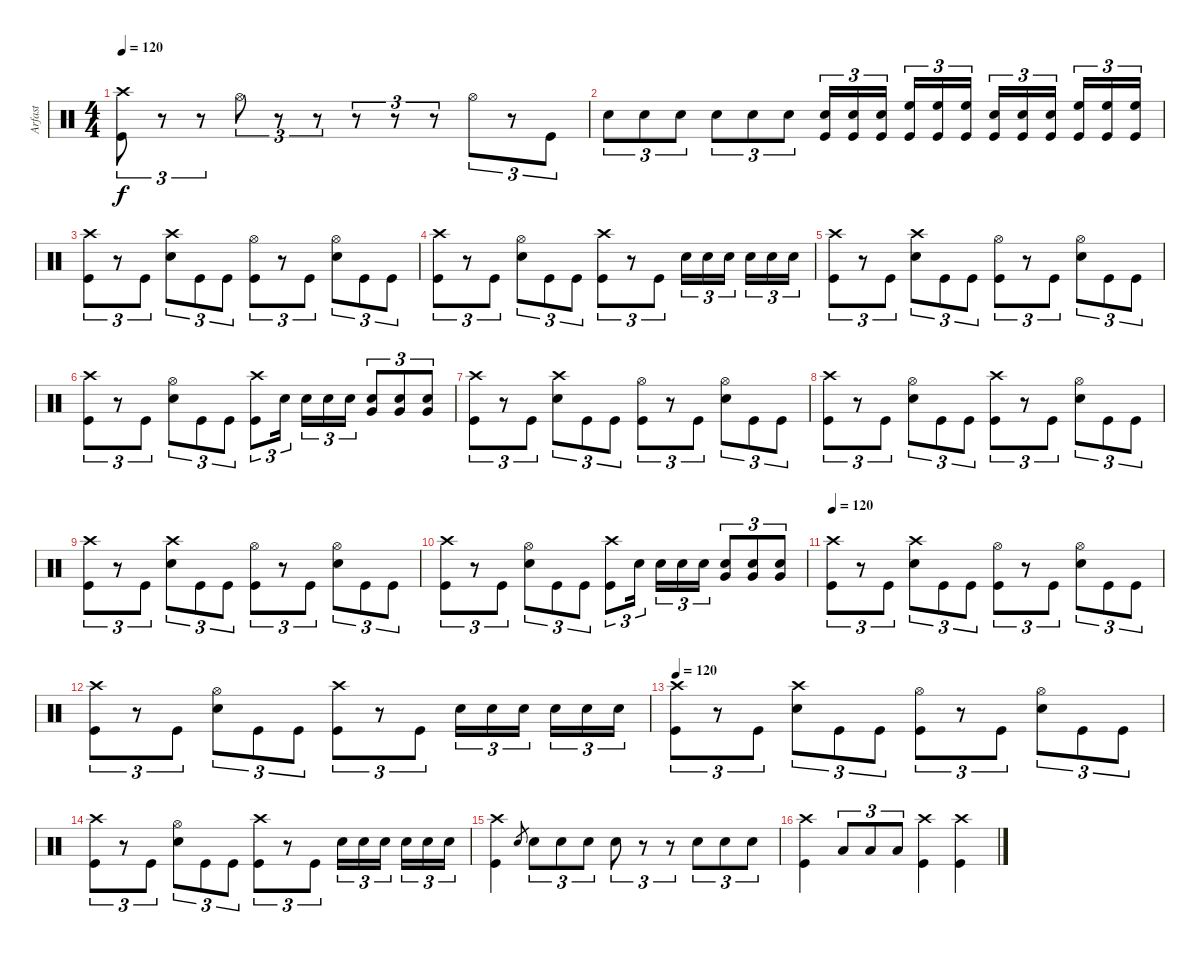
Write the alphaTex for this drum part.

\track ("Arfast" "Arfast") {instrument percussion}
\staff {score}
\articulation defaults
\ts (4 4)
\tempo 120
\clef neutral
\ks c
("Crash high (hit)" "Kick (hit)").8{tu (3 2) dy f} r.8{tu (3 2)} r.8{tu (3 2)} "Hi-Hat (open)".8{tu (3 2)} r.8{tu (3 2)} r.8{tu (3 2)} r.8{tu (3 2)} r.8{tu (3 2)} r.8{tu (3 2)} "Hi-Hat (open)".8{tu (3 2)} r.8{tu (3 2)} "Kick (hit)".8{tu (3 2)} |
"Snare (hit) 2".8{tu (3 2)} "Snare (hit) 2".8{tu (3 2)} "Snare (hit) 2".8{tu (3 2)} "Snare (hit) 2".8{tu (3 2)} "Snare (hit) 2".8{tu (3 2)} "Snare (hit) 2".8{tu (3 2)} ("Snare (hit) 2" "Kick (hit)").16{tu (3 2)} ("Snare (hit) 2" "Kick (hit)").16{tu (3 2)} ("Snare (hit) 2" "Kick (hit)").16{tu (3 2) beam splitsecondary} ("High Floor Tom (hit)" "Kick (hit)").16{tu (3 2)} ("High Floor Tom (hit)" "Kick (hit)").16{tu (3 2)} ("High Floor Tom (hit)" "Kick (hit)").16{tu (3 2)} ("Snare (hit) 2" "Kick (hit)").16{tu (3 2)} ("Snare (hit) 2" "Kick (hit)").16{tu (3 2)} ("Snare (hit) 2" "Kick (hit)").16{tu (3 2) beam splitsecondary} ("High Floor Tom (hit)" "Kick (hit)").16{tu (3 2)} ("High Floor Tom (hit)" "Kick (hit)").16{tu (3 2)} ("High Floor Tom (hit)" "Kick (hit)").16{tu (3 2)} |
("Crash high (hit)" "Kick (hit)").8{tu (3 2)} r.8{tu (3 2)} "Kick (hit)".8{tu (3 2)} ("Crash high (hit)" "Snare (hit) 2").8{tu (3 2)} "Kick (hit)".8{tu (3 2)} "Kick (hit)".8{tu (3 2)} ("Hi-Hat (open)" "Kick (hit)").8{tu (3 2)} r.8{tu (3 2)} "Kick (hit)".8{tu (3 2)} ("Hi-Hat (open)" "Snare (hit) 2").8{tu (3 2)} "Kick (hit)".8{tu (3 2)} "Kick (hit)".8{tu (3 2)} |
("Crash high (hit)" "Kick (hit)").8{tu (3 2)} r.8{tu (3 2)} "Kick (hit)".8{tu (3 2)} ("Hi-Hat (open)" "Snare (hit) 2").8{tu (3 2)} "Kick (hit)".8{tu (3 2)} "Kick (hit)".8{tu (3 2)} ("Crash high (hit)" "Kick (hit)").8{tu (3 2)} r.8{tu (3 2)} "Kick (hit)".8{tu (3 2)} "Snare (hit) 2".16{tu (3 2)} "Snare (hit) 2".16{tu (3 2)} "Snare (hit) 2".16{tu (3 2) beam splitsecondary} "Snare (hit) 2".16{tu (3 2)} "Snare (hit) 2".16{tu (3 2)} "Snare (hit) 2".16{tu (3 2)} |
("Crash high (hit)" "Kick (hit)").8{tu (3 2)} r.8{tu (3 2)} "Kick (hit)".8{tu (3 2)} ("Crash high (hit)" "Snare (hit) 2").8{tu (3 2)} "Kick (hit)".8{tu (3 2)} "Kick (hit)".8{tu (3 2)} ("Hi-Hat (open)" "Kick (hit)").8{tu (3 2)} r.8{tu (3 2)} "Kick (hit)".8{tu (3 2)} ("Hi-Hat (open)" "Snare (hit) 2").8{tu (3 2)} "Kick (hit)".8{tu (3 2)} "Kick (hit)".8{tu (3 2)} |
("Crash high (hit)" "Kick (hit)").8{tu (3 2)} r.8{tu (3 2)} "Kick (hit)".8{tu (3 2)} ("Hi-Hat (open)" "Snare (hit) 2").8{tu (3 2)} "Kick (hit)".8{tu (3 2)} "Kick (hit)".8{tu (3 2)} ("Crash high (hit)" "Kick (hit)").8{tu (3 2)} "Snare (hit) 2".16{tu (3 2) beam splitsecondary} "Snare (hit) 2".16{tu (3 2)} "Snare (hit) 2".16{tu (3 2)} "Snare (hit) 2".16{tu (3 2)} ("Snare (hit) 2" "Very Low Tom (hit)").8{tu (3 2)} ("Snare (hit) 2" "Very Low Tom (hit)").8{tu (3 2)} ("Snare (hit) 2" "Very Low Tom (hit)").8{tu (3 2)} |
("Crash high (hit)" "Kick (hit)").8{tu (3 2)} r.8{tu (3 2)} "Kick (hit)".8{tu (3 2)} ("Crash high (hit)" "Snare (hit) 2").8{tu (3 2)} "Kick (hit)".8{tu (3 2)} "Kick (hit)".8{tu (3 2)} ("Hi-Hat (open)" "Kick (hit)").8{tu (3 2)} r.8{tu (3 2)} "Kick (hit)".8{tu (3 2)} ("Hi-Hat (open)" "Snare (hit) 2").8{tu (3 2)} "Kick (hit)".8{tu (3 2)} "Kick (hit)".8{tu (3 2)} |
("Crash high (hit)" "Kick (hit)").8{tu (3 2)} r.8{tu (3 2)} "Kick (hit)".8{tu (3 2)} ("Hi-Hat (open)" "Snare (hit) 2").8{tu (3 2)} "Kick (hit)".8{tu (3 2)} "Kick (hit)".8{tu (3 2)} ("Crash high (hit)" "Kick (hit)").8{tu (3 2)} r.8{tu (3 2)} "Kick (hit)".8{tu (3 2)} ("Hi-Hat (open)" "Snare (hit) 2").8{tu (3 2)} "Kick (hit)".8{tu (3 2)} "Kick (hit)".8{tu (3 2)} |
("Crash high (hit)" "Kick (hit)").8{tu (3 2)} r.8{tu (3 2)} "Kick (hit)".8{tu (3 2)} ("Crash high (hit)" "Snare (hit) 2").8{tu (3 2)} "Kick (hit)".8{tu (3 2)} "Kick (hit)".8{tu (3 2)} ("Hi-Hat (open)" "Kick (hit)").8{tu (3 2)} r.8{tu (3 2)} "Kick (hit)".8{tu (3 2)} ("Hi-Hat (open)" "Snare (hit) 2").8{tu (3 2)} "Kick (hit)".8{tu (3 2)} "Kick (hit)".8{tu (3 2)} |
("Crash high (hit)" "Kick (hit)").8{tu (3 2)} r.8{tu (3 2)} "Kick (hit)".8{tu (3 2)} ("Hi-Hat (open)" "Snare (hit) 2").8{tu (3 2)} "Kick (hit)".8{tu (3 2)} "Kick (hit)".8{tu (3 2)} ("Crash high (hit)" "Kick (hit)").8{tu (3 2)} "Snare (hit) 2".16{tu (3 2) beam splitsecondary} "Snare (hit) 2".16{tu (3 2)} "Snare (hit) 2".16{tu (3 2)} "Snare (hit) 2".16{tu (3 2)} ("Snare (hit) 2" "Very Low Tom (hit)").8{tu (3 2)} ("Snare (hit) 2" "Very Low Tom (hit)").8{tu (3 2)} ("Snare (hit) 2" "Very Low Tom (hit)").8{tu (3 2)} |
\tempo 120
("Crash high (hit)" "Kick (hit)").8{tu (3 2)} r.8{tu (3 2)} "Kick (hit)".8{tu (3 2)} ("Crash high (hit)" "Snare (hit) 2").8{tu (3 2)} "Kick (hit)".8{tu (3 2)} "Kick (hit)".8{tu (3 2)} ("Hi-Hat (open)" "Kick (hit)").8{tu (3 2)} r.8{tu (3 2)} "Kick (hit)".8{tu (3 2)} ("Hi-Hat (open)" "Snare (hit) 2").8{tu (3 2)} "Kick (hit)".8{tu (3 2)} "Kick (hit)".8{tu (3 2)} |
("Crash high (hit)" "Kick (hit)").8{tu (3 2)} r.8{tu (3 2)} "Kick (hit)".8{tu (3 2)} ("Hi-Hat (open)" "Snare (hit) 2").8{tu (3 2)} "Kick (hit)".8{tu (3 2)} "Kick (hit)".8{tu (3 2)} ("Crash high (hit)" "Kick (hit)").8{tu (3 2)} r.8{tu (3 2)} "Kick (hit)".8{tu (3 2)} "Snare (hit) 2".16{tu (3 2)} "Snare (hit) 2".16{tu (3 2)} "Snare (hit) 2".16{tu (3 2) beam splitsecondary} "Snare (hit) 2".16{tu (3 2)} "Snare (hit) 2".16{tu (3 2)} "Snare (hit) 2".16{tu (3 2)} |
\tempo 120
("Crash high (hit)" "Kick (hit)").8{tu (3 2)} r.8{tu (3 2)} "Kick (hit)".8{tu (3 2)} ("Crash high (hit)" "Snare (hit) 2").8{tu (3 2)} "Kick (hit)".8{tu (3 2)} "Kick (hit)".8{tu (3 2)} ("Hi-Hat (open)" "Kick (hit)").8{tu (3 2)} r.8{tu (3 2)} "Kick (hit)".8{tu (3 2)} ("Hi-Hat (open)" "Snare (hit) 2").8{tu (3 2)} "Kick (hit)".8{tu (3 2)} "Kick (hit)".8{tu (3 2)} |
("Crash high (hit)" "Kick (hit)").8{tu (3 2)} r.8{tu (3 2)} "Kick (hit)".8{tu (3 2)} ("Hi-Hat (open)" "Snare (hit) 2").8{tu (3 2)} "Kick (hit)".8{tu (3 2)} "Kick (hit)".8{tu (3 2)} ("Crash high (hit)" "Kick (hit)").8{tu (3 2)} r.8{tu (3 2)} "Kick (hit)".8{tu (3 2)} "Snare (hit) 2".16{tu (3 2)} "Snare (hit) 2".16{tu (3 2)} "Snare (hit) 2".16{tu (3 2) beam splitsecondary} "Snare (hit) 2".16{tu (3 2)} "Snare (hit) 2".16{tu (3 2)} "Snare (hit) 2".16{tu (3 2)} |
("Crash high (hit)" "Kick (hit)").4 "Snare (hit) 2".8{gr} "Snare (hit) 2".8{tu (3 2)} "Snare (hit) 2".8{tu (3 2)} "Snare (hit) 2".8{tu (3 2)} "Snare (hit) 2".8{tu (3 2)} r.8{tu (3 2)} r.8{tu (3 2)} "Snare (hit) 2".8{tu (3 2)} "Snare (hit) 2".8{tu (3 2)} "Snare (hit) 2".8{tu (3 2)} |
("Crash high (hit)" "Kick (hit)").4 "Low Tom (hit)".8{tu (3 2)} "Low Tom (hit)".8{tu (3 2)} "Low Tom (hit)".8{tu (3 2)} ("Crash high (hit)" "Kick (hit)").4 ("Crash high (hit)" "Kick (hit)").4
